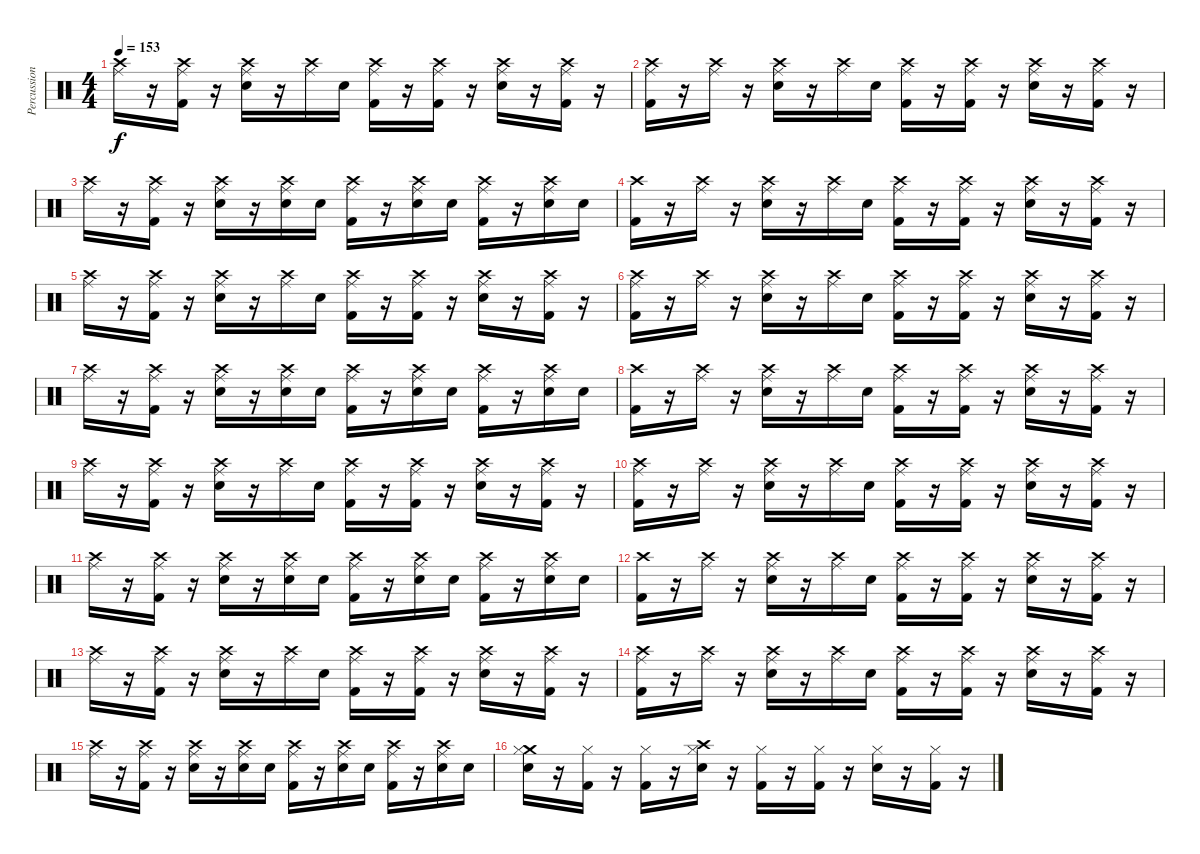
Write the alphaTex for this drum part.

\track ("Percussion" "Percussion") {instrument percussion}
\staff {score}
\articulation defaults
\ts (4 4)
\tempo 153
\clef neutral
\ks c
("Crash high (hit)" "Ride (middle)").16{dy f} r.16 ("Crash high (hit)" "Kick (hit) 2" "Ride (middle)").16 r.16 ("Crash high (hit)" "Electric Snare (hit)" "Ride (middle)").16 r.16 ("Crash high (hit)" "Ride (middle)").16 "Electric Snare (hit)".16 ("Kick (hit) 2" "Crash high (hit)" "Ride (middle)").16 r.16 ("Kick (hit) 2" "Crash high (hit)" "Ride (middle)").16 r.16 ("Electric Snare (hit)" "Crash high (hit)" "Ride (middle)").16 r.16 ("Crash high (hit)" "Kick (hit) 2" "Ride (middle)").16 r.16 |
("Kick (hit) 2" "Crash high (hit)" "Ride (middle)").16 r.16 ("Crash high (hit)" "Ride (middle)").16 r.16 ("Electric Snare (hit)" "Crash high (hit)" "Ride (middle)").16 r.16 ("Crash high (hit)" "Ride (middle)").16 "Electric Snare (hit)".16 ("Kick (hit) 2" "Crash high (hit)" "Ride (middle)").16 r.16 ("Kick (hit) 2" "Crash high (hit)" "Ride (middle)").16 r.16 ("Electric Snare (hit)" "Crash high (hit)" "Ride (middle)").16 r.16 ("Kick (hit) 2" "Crash high (hit)" "Ride (middle)").16 r.16 |
("Crash high (hit)" "Ride (middle)").16 r.16 ("Crash high (hit)" "Ride (middle)" "Kick (hit) 2").16 r.16 ("Crash high (hit)" "Ride (middle)" "Electric Snare (hit)").16 r.16 ("Crash high (hit)" "Electric Snare (hit)" "Ride (middle)").16 "Electric Snare (hit)".16 ("Crash high (hit)" "Kick (hit) 2" "Ride (middle)").16 r.16 ("Crash high (hit)" "Electric Snare (hit)" "Ride (middle)").16 "Electric Snare (hit)".16 ("Crash high (hit)" "Kick (hit) 2" "Ride (middle)").16 r.16 ("Crash high (hit)" "Electric Snare (hit)" "Ride (middle)").16 "Electric Snare (hit)".16 |
("Kick (hit) 2" "Crash high (hit)").16 r.16 ("Crash high (hit)" "Ride (middle)").16 r.16 ("Electric Snare (hit)" "Crash high (hit)" "Ride (middle)").16 r.16 ("Crash high (hit)" "Ride (middle)").16 "Electric Snare (hit)".16 ("Kick (hit) 2" "Crash high (hit)" "Ride (middle)").16 r.16 ("Kick (hit) 2" "Crash high (hit)" "Ride (middle)").16 r.16 ("Electric Snare (hit)" "Crash high (hit)" "Ride (middle)").16 r.16 ("Kick (hit) 2" "Crash high (hit)" "Ride (middle)").16 r.16 |
("Crash high (hit)" "Ride (middle)").16 r.16 ("Crash high (hit)" "Kick (hit) 2" "Ride (middle)").16 r.16 ("Crash high (hit)" "Electric Snare (hit)" "Ride (middle)").16 r.16 ("Crash high (hit)" "Ride (middle)").16 "Electric Snare (hit)".16 ("Kick (hit) 2" "Crash high (hit)" "Ride (middle)").16 r.16 ("Kick (hit) 2" "Crash high (hit)" "Ride (middle)").16 r.16 ("Electric Snare (hit)" "Crash high (hit)" "Ride (middle)").16 r.16 ("Crash high (hit)" "Kick (hit) 2" "Ride (middle)").16 r.16 |
("Kick (hit) 2" "Crash high (hit)" "Ride (middle)").16 r.16 ("Crash high (hit)" "Ride (middle)").16 r.16 ("Electric Snare (hit)" "Crash high (hit)" "Ride (middle)").16 r.16 ("Crash high (hit)" "Ride (middle)").16 "Electric Snare (hit)".16 ("Kick (hit) 2" "Crash high (hit)" "Ride (middle)").16 r.16 ("Kick (hit) 2" "Crash high (hit)" "Ride (middle)").16 r.16 ("Electric Snare (hit)" "Crash high (hit)" "Ride (middle)").16 r.16 ("Kick (hit) 2" "Crash high (hit)" "Ride (middle)").16 r.16 |
("Crash high (hit)" "Ride (middle)").16 r.16 ("Crash high (hit)" "Ride (middle)" "Kick (hit) 2").16 r.16 ("Crash high (hit)" "Ride (middle)" "Electric Snare (hit)").16 r.16 ("Crash high (hit)" "Electric Snare (hit)" "Ride (middle)").16 "Electric Snare (hit)".16 ("Crash high (hit)" "Kick (hit) 2" "Ride (middle)").16 r.16 ("Crash high (hit)" "Electric Snare (hit)" "Ride (middle)").16 "Electric Snare (hit)".16 ("Crash high (hit)" "Kick (hit) 2" "Ride (middle)").16 r.16 ("Crash high (hit)" "Electric Snare (hit)" "Ride (middle)").16 "Electric Snare (hit)".16 |
("Kick (hit) 2" "Crash high (hit)").16 r.16 ("Crash high (hit)" "Ride (middle)").16 r.16 ("Electric Snare (hit)" "Crash high (hit)" "Ride (middle)").16 r.16 ("Crash high (hit)" "Ride (middle)").16 "Electric Snare (hit)".16 ("Kick (hit) 2" "Crash high (hit)" "Ride (middle)").16 r.16 ("Kick (hit) 2" "Crash high (hit)" "Ride (middle)").16 r.16 ("Electric Snare (hit)" "Crash high (hit)" "Ride (middle)").16 r.16 ("Kick (hit) 2" "Crash high (hit)" "Ride (middle)").16 r.16 |
("Crash high (hit)" "Ride (middle)").16 r.16 ("Crash high (hit)" "Kick (hit) 2" "Ride (middle)").16 r.16 ("Crash high (hit)" "Electric Snare (hit)" "Ride (middle)").16 r.16 ("Crash high (hit)" "Ride (middle)").16 "Electric Snare (hit)".16 ("Kick (hit) 2" "Crash high (hit)" "Ride (middle)").16 r.16 ("Kick (hit) 2" "Crash high (hit)" "Ride (middle)").16 r.16 ("Electric Snare (hit)" "Crash high (hit)" "Ride (middle)").16 r.16 ("Crash high (hit)" "Kick (hit) 2" "Ride (middle)").16 r.16 |
("Kick (hit) 2" "Crash high (hit)" "Ride (middle)").16 r.16 ("Crash high (hit)" "Ride (middle)").16 r.16 ("Electric Snare (hit)" "Crash high (hit)" "Ride (middle)").16 r.16 ("Crash high (hit)" "Ride (middle)").16 "Electric Snare (hit)".16 ("Kick (hit) 2" "Crash high (hit)" "Ride (middle)").16 r.16 ("Kick (hit) 2" "Crash high (hit)" "Ride (middle)").16 r.16 ("Electric Snare (hit)" "Crash high (hit)" "Ride (middle)").16 r.16 ("Kick (hit) 2" "Crash high (hit)" "Ride (middle)").16 r.16 |
("Crash high (hit)" "Ride (middle)").16 r.16 ("Crash high (hit)" "Ride (middle)" "Kick (hit) 2").16 r.16 ("Crash high (hit)" "Ride (middle)" "Electric Snare (hit)").16 r.16 ("Crash high (hit)" "Electric Snare (hit)" "Ride (middle)").16 "Electric Snare (hit)".16 ("Crash high (hit)" "Kick (hit) 2" "Ride (middle)").16 r.16 ("Crash high (hit)" "Electric Snare (hit)" "Ride (middle)").16 "Electric Snare (hit)".16 ("Crash high (hit)" "Kick (hit) 2" "Ride (middle)").16 r.16 ("Crash high (hit)" "Electric Snare (hit)" "Ride (middle)").16 "Electric Snare (hit)".16 |
("Kick (hit) 2" "Crash high (hit)").16 r.16 ("Crash high (hit)" "Ride (middle)").16 r.16 ("Electric Snare (hit)" "Crash high (hit)" "Ride (middle)").16 r.16 ("Crash high (hit)" "Ride (middle)").16 "Electric Snare (hit)".16 ("Kick (hit) 2" "Crash high (hit)" "Ride (middle)").16 r.16 ("Kick (hit) 2" "Crash high (hit)" "Ride (middle)").16 r.16 ("Electric Snare (hit)" "Crash high (hit)" "Ride (middle)").16 r.16 ("Kick (hit) 2" "Crash high (hit)" "Ride (middle)").16 r.16 |
("Crash high (hit)" "Ride (middle)").16 r.16 ("Crash high (hit)" "Kick (hit) 2" "Ride (middle)").16 r.16 ("Crash high (hit)" "Electric Snare (hit)" "Ride (middle)").16 r.16 ("Crash high (hit)" "Ride (middle)").16 "Electric Snare (hit)".16 ("Kick (hit) 2" "Crash high (hit)" "Ride (middle)").16 r.16 ("Kick (hit) 2" "Crash high (hit)" "Ride (middle)").16 r.16 ("Electric Snare (hit)" "Crash high (hit)" "Ride (middle)").16 r.16 ("Crash high (hit)" "Kick (hit) 2" "Ride (middle)").16 r.16 |
("Kick (hit) 2" "Crash high (hit)" "Ride (middle)").16 r.16 ("Crash high (hit)" "Ride (middle)").16 r.16 ("Electric Snare (hit)" "Crash high (hit)" "Ride (middle)").16 r.16 ("Crash high (hit)" "Ride (middle)").16 "Electric Snare (hit)".16 ("Kick (hit) 2" "Crash high (hit)" "Ride (middle)").16 r.16 ("Kick (hit) 2" "Crash high (hit)" "Ride (middle)").16 r.16 ("Electric Snare (hit)" "Crash high (hit)" "Ride (middle)").16 r.16 ("Kick (hit) 2" "Crash high (hit)" "Ride (middle)").16 r.16 |
("Crash high (hit)" "Ride (middle)").16 r.16 ("Crash high (hit)" "Ride (middle)" "Kick (hit) 2").16 r.16 ("Crash high (hit)" "Ride (middle)" "Electric Snare (hit)").16 r.16 ("Crash high (hit)" "Electric Snare (hit)" "Ride (middle)").16 "Electric Snare (hit)".16 ("Crash high (hit)" "Kick (hit) 2" "Ride (middle)").16 r.16 ("Crash high (hit)" "Electric Snare (hit)" "Ride (middle)").16 "Electric Snare (hit)".16 ("Crash high (hit)" "Kick (hit) 2" "Ride (middle)").16 r.16 ("Crash high (hit)" "Electric Snare (hit)" "Ride (middle)").16 "Electric Snare (hit)".16 |
("Electric Snare (hit)" "Crash medium (hit)" "Hi-Hat (closed)").16 r.16 ("Kick (hit) 2" "Hi-Hat (closed)").16 r.16 ("Kick (hit) 2" "Hi-Hat (closed)").16 r.16 ("Electric Snare (hit)" "Crash high (hit)" "Hi-Hat (closed)").16 r.16 ("Kick (hit) 2" "Hi-Hat (closed)").16 r.16 ("Kick (hit) 2" "Hi-Hat (closed)").16 r.16 ("Electric Snare (hit)" "Hi-Hat (closed)").16 r.16 ("Kick (hit) 2" "Hi-Hat (closed)").16 r.16
